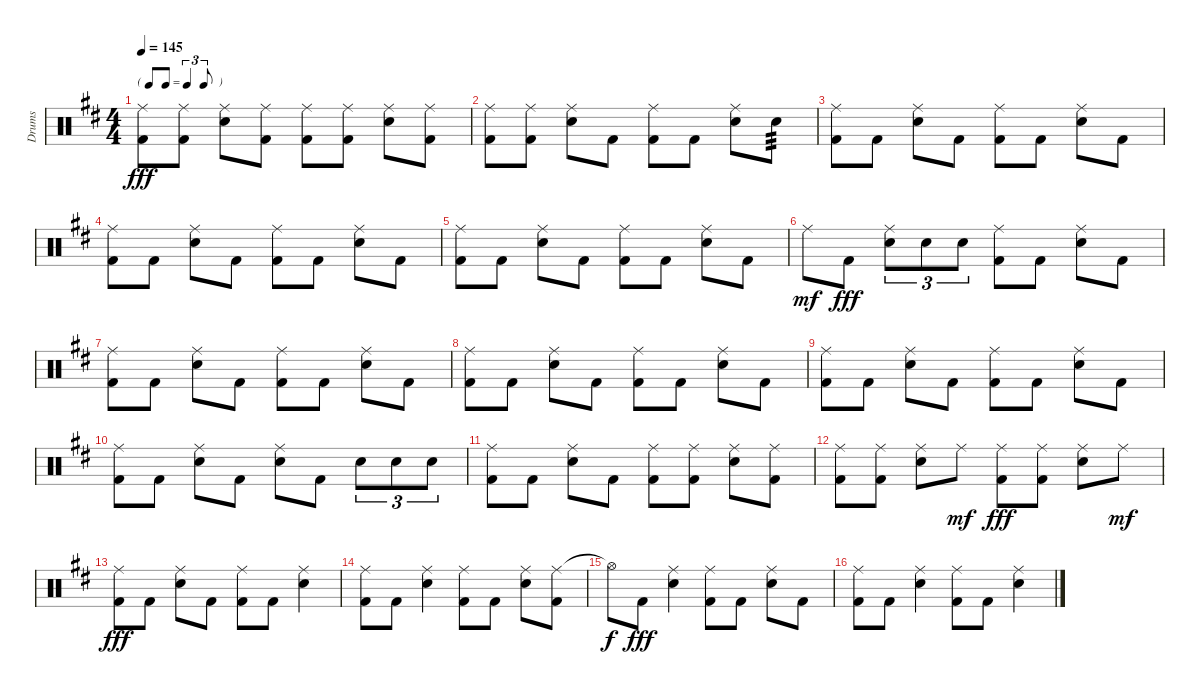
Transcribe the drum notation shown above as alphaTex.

\track ("Drums" "Drums") {instrument percussion}
\staff {score}
\articulation defaults
\ts (4 4)
\tf triplet8th
\tempo 145
\clef neutral
\ks d
("Ride (middle)" "Kick (hit) 2").8{dy fff} ("Ride (middle)" "Kick (hit) 2").8 ("Ride (middle)" "Snare (hit) 2").8 ("Ride (middle)" "Kick (hit) 2").8 ("Ride (middle)" "Kick (hit) 2").8 ("Ride (middle)" "Kick (hit) 2").8 ("Ride (middle)" "Snare (hit) 2").8 ("Ride (middle)" "Kick (hit) 2").8 |
("Ride (middle)" "Kick (hit) 2").8 ("Ride (middle)" "Kick (hit) 2").8 ("Ride (middle)" "Snare (hit) 2").8 "Kick (hit) 2".8 ("Ride (middle)" "Kick (hit) 2").8 "Kick (hit) 2".8 ("Ride (middle)" "Snare (hit) 2").8 "Snare (hit) 2".8{tp 3} |
("Ride (middle)" "Kick (hit) 2").8 "Kick (hit) 2".8 ("Ride (middle)" "Snare (hit) 2").8 "Kick (hit) 2".8 ("Ride (middle)" "Kick (hit) 2").8 "Kick (hit) 2".8 ("Ride (middle)" "Snare (hit) 2").8 "Kick (hit) 2".8 |
("Ride (middle)" "Kick (hit) 2").8 "Kick (hit) 2".8 ("Ride (middle)" "Snare (hit) 2").8 "Kick (hit) 2".8 ("Ride (middle)" "Kick (hit) 2").8 "Kick (hit) 2".8 ("Ride (middle)" "Snare (hit) 2").8 "Kick (hit) 2".8 |
("Ride (middle)" "Kick (hit) 2").8 "Kick (hit) 2".8 ("Ride (middle)" "Snare (hit) 2").8 "Kick (hit) 2".8 ("Ride (middle)" "Kick (hit) 2").8 "Kick (hit) 2".8 ("Ride (middle)" "Snare (hit) 2").8 "Kick (hit) 2".8 |
"Ride (middle)".8{dy mf} "Kick (hit) 2".8{dy fff} ("Ride (middle)" "Snare (hit) 2").8{tu (3 2)} "Snare (hit) 2".8{tu (3 2)} "Snare (hit) 2".8{tu (3 2)} ("Ride (middle)" "Kick (hit) 2").8 "Kick (hit) 2".8 ("Ride (middle)" "Snare (hit) 2").8 "Kick (hit) 2".8 |
("Ride (middle)" "Kick (hit) 2").8 "Kick (hit) 2".8 ("Ride (middle)" "Snare (hit) 2").8 "Kick (hit) 2".8 ("Ride (middle)" "Kick (hit) 2").8 "Kick (hit) 2".8 ("Ride (middle)" "Snare (hit) 2").8 "Kick (hit) 2".8 |
("Ride (middle)" "Kick (hit) 2").8 "Kick (hit) 2".8 ("Ride (middle)" "Snare (hit) 2").8 "Kick (hit) 2".8 ("Ride (middle)" "Kick (hit) 2").8 "Kick (hit) 2".8 ("Ride (middle)" "Snare (hit) 2").8 "Kick (hit) 2".8 |
("Ride (middle)" "Kick (hit) 2").8 "Kick (hit) 2".8 ("Ride (middle)" "Snare (hit) 2").8 "Kick (hit) 2".8 ("Ride (middle)" "Kick (hit) 2").8 "Kick (hit) 2".8 ("Ride (middle)" "Snare (hit) 2").8 "Kick (hit) 2".8 |
("Ride (middle)" "Kick (hit) 2").8 "Kick (hit) 2".8 ("Ride (middle)" "Snare (hit) 2").8 "Kick (hit) 2".8 ("Ride (middle)" "Snare (hit) 2").8 "Kick (hit) 2".8 "Snare (hit) 2".8{tu (3 2)} "Snare (hit) 2".8{tu (3 2)} "Snare (hit) 2".8{tu (3 2)} |
("Ride (middle)" "Kick (hit) 2").8 "Kick (hit) 2".8 ("Ride (middle)" "Snare (hit) 2").8 "Kick (hit) 2".8 ("Ride (middle)" "Kick (hit) 2").8 ("Ride (middle)" "Kick (hit) 2").8 ("Ride (middle)" "Snare (hit) 2").8 ("Ride (middle)" "Kick (hit) 2").8 |
("Ride (middle)" "Kick (hit) 2").8 ("Ride (middle)" "Kick (hit) 2").8 ("Ride (middle)" "Snare (hit) 2").8 "Ride (middle)".8{dy mf} ("Ride (middle)" "Kick (hit) 2").8{dy fff} ("Ride (middle)" "Kick (hit) 2").8 ("Ride (middle)" "Snare (hit) 2").8 "Ride (middle)".8{dy mf} |
("Ride (middle)" "Kick (hit) 2").8{dy fff} "Kick (hit) 2".8 ("Ride (middle)" "Snare (hit) 2").8 "Kick (hit) 2".8 ("Ride (middle)" "Kick (hit) 2").8 "Kick (hit) 2".8 ("Ride (middle)" "Snare (hit) 2").4 |
("Ride (middle)" "Kick (hit) 2").8 "Kick (hit) 2".8 ("Ride (middle)" "Snare (hit) 2").4 ("Ride (middle)" "Kick (hit) 2").8 "Kick (hit) 2".8 ("Ride (middle)" "Snare (hit) 2").8 ("Ride (middle)" "Kick (hit) 2").8 |
"Hi-Hat (open)"{t}.8{dy f} "Kick (hit) 2".8{dy fff} ("Ride (middle)" "Snare (hit) 2").4 ("Ride (middle)" "Kick (hit) 2").8 "Kick (hit) 2".8 ("Ride (middle)" "Snare (hit) 2").8 "Kick (hit) 2".8 |
("Ride (middle)" "Kick (hit) 2").8 "Kick (hit) 2".8 ("Ride (middle)" "Snare (hit) 2").4 ("Ride (middle)" "Kick (hit) 2").8 "Kick (hit) 2".8 ("Ride (middle)" "Snare (hit) 2").4
